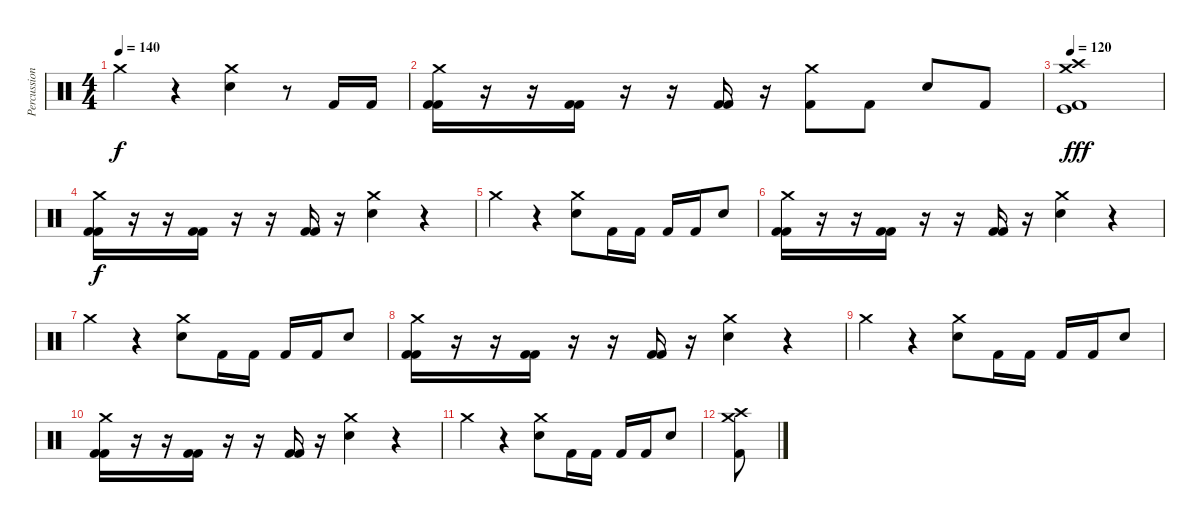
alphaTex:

\track ("Percussion" "Percussion") {instrument percussion}
\staff {score}
\articulation defaults
\ts (4 4)
\tempo 140
\clef neutral
\ks c "Crash medium (hit)".4{dy f}
r.4 ("Crash medium (hit)" "Electric Snare (hit)").4 r.8 "Kick (hit) 2".16 "Kick (hit) 2".16 |
("Crash medium (hit)" "Kick (hit) 2" "Kick (hit) 2").16 r.16 r.16 ("Kick (hit) 2" "Kick (hit) 2").16 r.16 r.16 ("Kick (hit) 2" "Kick (hit) 2").16 r.16 ("Crash medium (hit)" "Kick (hit) 2").8 "Kick (hit) 2".8 "Electric Snare (hit)".8 "Kick (hit) 2".8 |
\tempo 120
("Crash medium (hit)" "Crash high (hit)" "Kick (hit)" "Kick (hit) 2").1{dy fff} |
("Crash medium (hit)" "Kick (hit) 2" "Kick (hit) 2").16{dy f} r.16 r.16 ("Kick (hit) 2" "Kick (hit) 2").16 r.16 r.16 ("Kick (hit) 2" "Kick (hit) 2").16 r.16 ("Crash medium (hit)" "Electric Snare (hit)").4 r.4 |
"Crash medium (hit)".4 r.4 ("Crash medium (hit)" "Electric Snare (hit)").8 "Kick (hit) 2".16 "Kick (hit) 2".16 "Kick (hit) 2".16 "Kick (hit) 2".16 "Electric Snare (hit)".8 |
("Crash medium (hit)" "Kick (hit) 2" "Kick (hit) 2").16 r.16 r.16 ("Kick (hit) 2" "Kick (hit) 2").16 r.16 r.16 ("Kick (hit) 2" "Kick (hit) 2").16 r.16 ("Crash medium (hit)" "Electric Snare (hit)").4 r.4 |
"Crash medium (hit)".4 r.4 ("Crash medium (hit)" "Electric Snare (hit)").8 "Kick (hit) 2".16 "Kick (hit) 2".16 "Kick (hit) 2".16 "Kick (hit) 2".16 "Electric Snare (hit)".8 |
("Crash medium (hit)" "Kick (hit) 2" "Kick (hit) 2").16 r.16 r.16 ("Kick (hit) 2" "Kick (hit) 2").16 r.16 r.16 ("Kick (hit) 2" "Kick (hit) 2").16 r.16 ("Crash medium (hit)" "Electric Snare (hit)").4 r.4 |
"Crash medium (hit)".4 r.4 ("Crash medium (hit)" "Electric Snare (hit)").8 "Kick (hit) 2".16 "Kick (hit) 2".16 "Kick (hit) 2".16 "Kick (hit) 2".16 "Electric Snare (hit)".8 |
("Crash medium (hit)" "Kick (hit) 2" "Kick (hit) 2").16 r.16 r.16 ("Kick (hit) 2" "Kick (hit) 2").16 r.16 r.16 ("Kick (hit) 2" "Kick (hit) 2").16 r.16 ("Crash medium (hit)" "Electric Snare (hit)").4 r.4 |
"Crash medium (hit)".4 r.4 ("Crash medium (hit)" "Electric Snare (hit)").8 "Kick (hit) 2".16 "Kick (hit) 2".16 "Kick (hit) 2".16 "Kick (hit) 2".16 "Electric Snare (hit)".8 |
("Crash medium (hit)" "Crash high (hit)" "Kick (hit) 2").8
